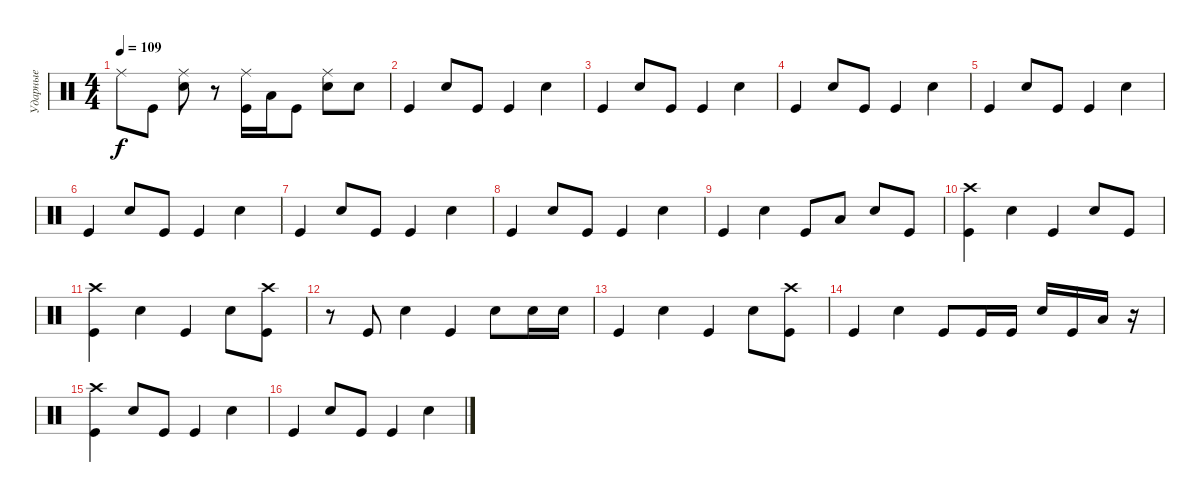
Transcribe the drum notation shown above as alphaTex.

\track ("Ударные" "Ударные") {instrument percussion}
\staff {score}
\articulation defaults
\ts (4 4)
\tempo 109
\clef neutral
\ks c "Ride (middle)".8{dy f} "Kick (hit)".8
("Snare (hit) 2" "Ride (middle)").8 r.8 ("Ride (middle)" "Kick (hit)").16 "Low Tom (hit)".16 "Kick (hit)".8 ("Ride (middle)" "Snare (hit) 2").8 "Snare (hit) 2".8 |
"Kick (hit)".4 "Snare (hit) 2".8 "Kick (hit)".8 "Kick (hit)".4 "Snare (hit) 2".4 |
"Kick (hit)".4 "Snare (hit) 2".8 "Kick (hit)".8 "Kick (hit)".4 "Snare (hit) 2".4 |
"Kick (hit)".4 "Snare (hit) 2".8 "Kick (hit)".8 "Kick (hit)".4 "Snare (hit) 2".4 |
"Kick (hit)".4 "Snare (hit) 2".8 "Kick (hit)".8 "Kick (hit)".4 "Snare (hit) 2".4 |
"Kick (hit)".4 "Snare (hit) 2".8 "Kick (hit)".8 "Kick (hit)".4 "Snare (hit) 2".4 |
"Kick (hit)".4 "Snare (hit) 2".8 "Kick (hit)".8 "Kick (hit)".4 "Snare (hit) 2".4 |
"Kick (hit)".4 "Snare (hit) 2".8 "Kick (hit)".8 "Kick (hit)".4 "Snare (hit) 2".4 |
"Kick (hit)".4 "Snare (hit) 2".4 "Kick (hit)".8 "Low Floor Tom (hit)".8 "Snare (hit) 2".8 "Kick (hit)".8 |
("Kick (hit)" "Crash high (hit)").4 "Snare (hit) 2".4 "Kick (hit)".4 "Snare (hit) 2".8 "Kick (hit)".8 |
("Kick (hit)" "Crash high (hit)").4 "Snare (hit) 2".4 "Kick (hit)".4 "Snare (hit) 2".8 ("Kick (hit)" "Crash high (hit)").8 |
r.8 "Kick (hit)".8 "Snare (hit) 2".4 "Kick (hit)".4 "Snare (hit) 2".8 "Snare (hit) 2".16 "Snare (hit) 2".16 |
"Kick (hit)".4 "Snare (hit) 2".4 "Kick (hit)".4 "Snare (hit) 2".8 ("Kick (hit)" "Crash high (hit)").8 |
"Kick (hit)".4 "Snare (hit) 2".4 "Kick (hit)".8 "Kick (hit)".16 "Kick (hit)".16 "Snare (hit) 2".16 "Kick (hit)".16 "Low Floor Tom (hit)".16 r.16 |
("Kick (hit)" "Crash high (hit)").4 "Snare (hit) 2".8 "Kick (hit)".8 "Kick (hit)".4 "Snare (hit) 2".4 |
"Kick (hit)".4 "Snare (hit) 2".8 "Kick (hit)".8 "Kick (hit)".4 "Snare (hit) 2".4
